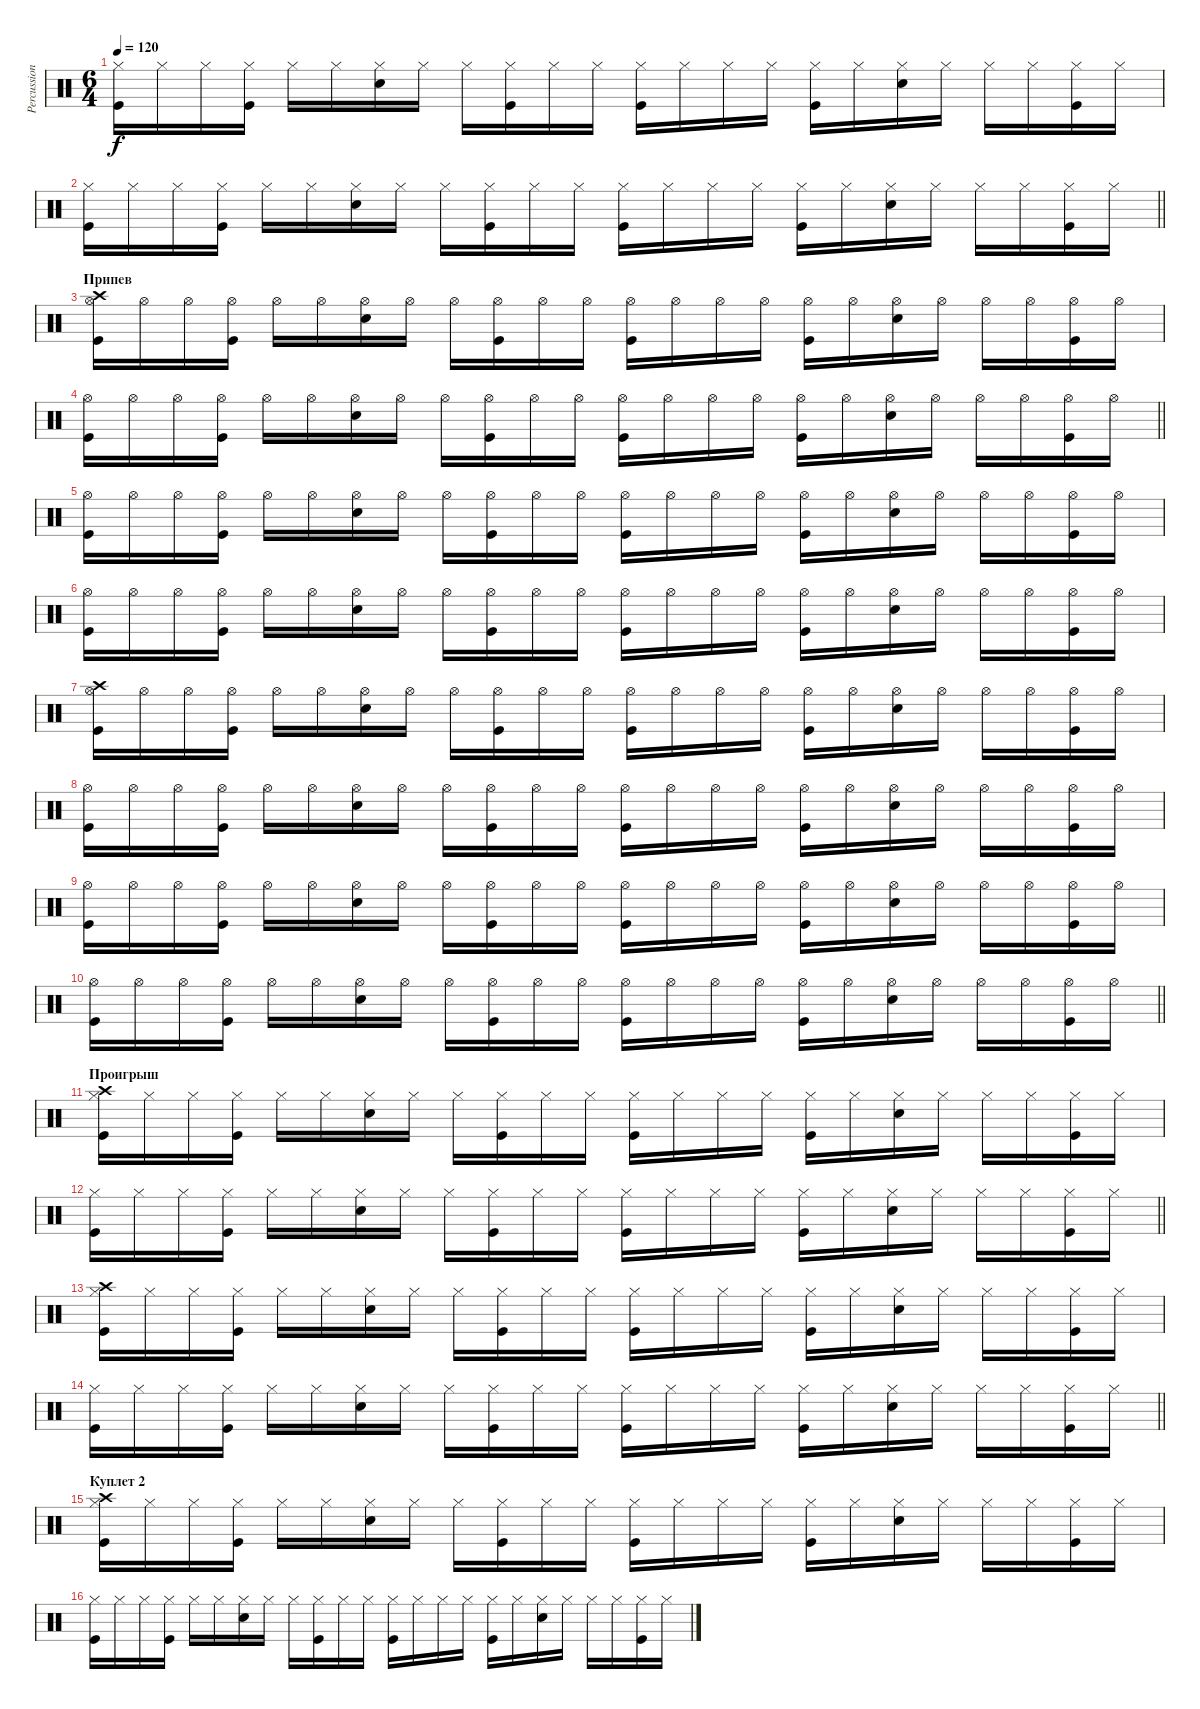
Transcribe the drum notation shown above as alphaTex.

\track ("Percussion" "Percussion") {instrument percussion}
\staff {score}
\articulation defaults
\ts (6 4)
\tempo 120
\clef neutral
\ks c
("Hi-Hat (closed)" "Kick (hit)").16{dy f} "Hi-Hat (closed)".16 "Hi-Hat (closed)".16 ("Hi-Hat (closed)" "Kick (hit)").16 "Hi-Hat (closed)".16 "Hi-Hat (closed)".16 ("Hi-Hat (closed)" "Snare (hit) 2").16 "Hi-Hat (closed)".16 "Hi-Hat (closed)".16 ("Hi-Hat (closed)" "Kick (hit)").16 "Hi-Hat (closed)".16 "Hi-Hat (closed)".16 ("Hi-Hat (closed)" "Kick (hit)").16 "Hi-Hat (closed)".16 "Hi-Hat (closed)".16 "Hi-Hat (closed)".16 ("Hi-Hat (closed)" "Kick (hit)").16 "Hi-Hat (closed)".16 ("Hi-Hat (closed)" "Snare (hit) 2").16 "Hi-Hat (closed)".16 "Hi-Hat (closed)".16 "Hi-Hat (closed)".16 ("Hi-Hat (closed)" "Kick (hit)").16 "Hi-Hat (closed)".16 |
\barLineRight lightlight
("Hi-Hat (closed)" "Kick (hit)").16 "Hi-Hat (closed)".16 "Hi-Hat (closed)".16 ("Hi-Hat (closed)" "Kick (hit)").16 "Hi-Hat (closed)".16 "Hi-Hat (closed)".16 ("Hi-Hat (closed)" "Snare (hit) 2").16 "Hi-Hat (closed)".16 "Hi-Hat (closed)".16 ("Hi-Hat (closed)" "Kick (hit)").16 "Hi-Hat (closed)".16 "Hi-Hat (closed)".16 ("Hi-Hat (closed)" "Kick (hit)").16 "Hi-Hat (closed)".16 "Hi-Hat (closed)".16 "Hi-Hat (closed)".16 ("Hi-Hat (closed)" "Kick (hit)").16 "Hi-Hat (closed)".16 ("Hi-Hat (closed)" "Snare (hit) 2").16 "Hi-Hat (closed)".16 "Hi-Hat (closed)".16 "Hi-Hat (closed)".16 ("Hi-Hat (closed)" "Kick (hit)").16 "Hi-Hat (closed)".16 |
\section ("" "Припев")
("Hi-Hat (open)" "Crash high (hit)" "Kick (hit)").16 "Hi-Hat (open)".16 "Hi-Hat (open)".16 ("Hi-Hat (open)" "Kick (hit)").16 "Hi-Hat (open)".16 "Hi-Hat (open)".16 ("Hi-Hat (open)" "Snare (hit) 2").16 "Hi-Hat (open)".16 "Hi-Hat (open)".16 ("Hi-Hat (open)" "Kick (hit)").16 "Hi-Hat (open)".16 "Hi-Hat (open)".16 ("Hi-Hat (open)" "Kick (hit)").16 "Hi-Hat (open)".16 "Hi-Hat (open)".16 "Hi-Hat (open)".16 ("Hi-Hat (open)" "Kick (hit)").16 "Hi-Hat (open)".16 ("Hi-Hat (open)" "Snare (hit) 2").16 "Hi-Hat (open)".16 "Hi-Hat (open)".16 "Hi-Hat (open)".16 ("Hi-Hat (open)" "Kick (hit)").16 "Hi-Hat (open)".16 |
\barLineRight lightlight
("Hi-Hat (open)" "Kick (hit)").16 "Hi-Hat (open)".16 "Hi-Hat (open)".16 ("Hi-Hat (open)" "Kick (hit)").16 "Hi-Hat (open)".16 "Hi-Hat (open)".16 ("Hi-Hat (open)" "Snare (hit) 2").16 "Hi-Hat (open)".16 "Hi-Hat (open)".16 ("Hi-Hat (open)" "Kick (hit)").16 "Hi-Hat (open)".16 "Hi-Hat (open)".16 ("Hi-Hat (open)" "Kick (hit)").16 "Hi-Hat (open)".16 "Hi-Hat (open)".16 "Hi-Hat (open)".16 ("Hi-Hat (open)" "Kick (hit)").16 "Hi-Hat (open)".16 ("Hi-Hat (open)" "Snare (hit) 2").16 "Hi-Hat (open)".16 "Hi-Hat (open)".16 "Hi-Hat (open)".16 ("Hi-Hat (open)" "Kick (hit)").16 "Hi-Hat (open)".16 |
("Hi-Hat (open)" "Kick (hit)").16 "Hi-Hat (open)".16 "Hi-Hat (open)".16 ("Hi-Hat (open)" "Kick (hit)").16 "Hi-Hat (open)".16 "Hi-Hat (open)".16 ("Hi-Hat (open)" "Snare (hit) 2").16 "Hi-Hat (open)".16 "Hi-Hat (open)".16 ("Hi-Hat (open)" "Kick (hit)").16 "Hi-Hat (open)".16 "Hi-Hat (open)".16 ("Hi-Hat (open)" "Kick (hit)").16 "Hi-Hat (open)".16 "Hi-Hat (open)".16 "Hi-Hat (open)".16 ("Hi-Hat (open)" "Kick (hit)").16 "Hi-Hat (open)".16 ("Hi-Hat (open)" "Snare (hit) 2").16 "Hi-Hat (open)".16 "Hi-Hat (open)".16 "Hi-Hat (open)".16 ("Hi-Hat (open)" "Kick (hit)").16 "Hi-Hat (open)".16 |
("Hi-Hat (open)" "Kick (hit)").16 "Hi-Hat (open)".16 "Hi-Hat (open)".16 ("Hi-Hat (open)" "Kick (hit)").16 "Hi-Hat (open)".16 "Hi-Hat (open)".16 ("Hi-Hat (open)" "Snare (hit) 2").16 "Hi-Hat (open)".16 "Hi-Hat (open)".16 ("Hi-Hat (open)" "Kick (hit)").16 "Hi-Hat (open)".16 "Hi-Hat (open)".16 ("Hi-Hat (open)" "Kick (hit)").16 "Hi-Hat (open)".16 "Hi-Hat (open)".16 "Hi-Hat (open)".16 ("Hi-Hat (open)" "Kick (hit)").16 "Hi-Hat (open)".16 ("Hi-Hat (open)" "Snare (hit) 2").16 "Hi-Hat (open)".16 "Hi-Hat (open)".16 "Hi-Hat (open)".16 ("Hi-Hat (open)" "Kick (hit)").16 "Hi-Hat (open)".16 |
("Hi-Hat (open)" "Crash high (hit)" "Kick (hit)").16 "Hi-Hat (open)".16 "Hi-Hat (open)".16 ("Hi-Hat (open)" "Kick (hit)").16 "Hi-Hat (open)".16 "Hi-Hat (open)".16 ("Hi-Hat (open)" "Snare (hit) 2").16 "Hi-Hat (open)".16 "Hi-Hat (open)".16 ("Hi-Hat (open)" "Kick (hit)").16 "Hi-Hat (open)".16 "Hi-Hat (open)".16 ("Hi-Hat (open)" "Kick (hit)").16 "Hi-Hat (open)".16 "Hi-Hat (open)".16 "Hi-Hat (open)".16 ("Hi-Hat (open)" "Kick (hit)").16 "Hi-Hat (open)".16 ("Hi-Hat (open)" "Snare (hit) 2").16 "Hi-Hat (open)".16 "Hi-Hat (open)".16 "Hi-Hat (open)".16 ("Hi-Hat (open)" "Kick (hit)").16 "Hi-Hat (open)".16 |
("Hi-Hat (open)" "Kick (hit)").16 "Hi-Hat (open)".16 "Hi-Hat (open)".16 ("Hi-Hat (open)" "Kick (hit)").16 "Hi-Hat (open)".16 "Hi-Hat (open)".16 ("Hi-Hat (open)" "Snare (hit) 2").16 "Hi-Hat (open)".16 "Hi-Hat (open)".16 ("Hi-Hat (open)" "Kick (hit)").16 "Hi-Hat (open)".16 "Hi-Hat (open)".16 ("Hi-Hat (open)" "Kick (hit)").16 "Hi-Hat (open)".16 "Hi-Hat (open)".16 "Hi-Hat (open)".16 ("Hi-Hat (open)" "Kick (hit)").16 "Hi-Hat (open)".16 ("Hi-Hat (open)" "Snare (hit) 2").16 "Hi-Hat (open)".16 "Hi-Hat (open)".16 "Hi-Hat (open)".16 ("Hi-Hat (open)" "Kick (hit)").16 "Hi-Hat (open)".16 |
("Hi-Hat (open)" "Kick (hit)").16 "Hi-Hat (open)".16 "Hi-Hat (open)".16 ("Hi-Hat (open)" "Kick (hit)").16 "Hi-Hat (open)".16 "Hi-Hat (open)".16 ("Hi-Hat (open)" "Snare (hit) 2").16 "Hi-Hat (open)".16 "Hi-Hat (open)".16 ("Hi-Hat (open)" "Kick (hit)").16 "Hi-Hat (open)".16 "Hi-Hat (open)".16 ("Hi-Hat (open)" "Kick (hit)").16 "Hi-Hat (open)".16 "Hi-Hat (open)".16 "Hi-Hat (open)".16 ("Hi-Hat (open)" "Kick (hit)").16 "Hi-Hat (open)".16 ("Hi-Hat (open)" "Snare (hit) 2").16 "Hi-Hat (open)".16 "Hi-Hat (open)".16 "Hi-Hat (open)".16 ("Hi-Hat (open)" "Kick (hit)").16 "Hi-Hat (open)".16 |
\barLineRight lightlight
("Hi-Hat (open)" "Kick (hit)").16 "Hi-Hat (open)".16 "Hi-Hat (open)".16 ("Hi-Hat (open)" "Kick (hit)").16 "Hi-Hat (open)".16 "Hi-Hat (open)".16 ("Hi-Hat (open)" "Snare (hit) 2").16 "Hi-Hat (open)".16 "Hi-Hat (open)".16 ("Hi-Hat (open)" "Kick (hit)").16 "Hi-Hat (open)".16 "Hi-Hat (open)".16 ("Hi-Hat (open)" "Kick (hit)").16 "Hi-Hat (open)".16 "Hi-Hat (open)".16 "Hi-Hat (open)".16 ("Hi-Hat (open)" "Kick (hit)").16 "Hi-Hat (open)".16 ("Hi-Hat (open)" "Snare (hit) 2").16 "Hi-Hat (open)".16 "Hi-Hat (open)".16 "Hi-Hat (open)".16 ("Hi-Hat (open)" "Kick (hit)").16 "Hi-Hat (open)".16 |
\section ("" "Проигрыш")
("Hi-Hat (closed)" "Crash high (hit)" "Kick (hit)").16 "Hi-Hat (closed)".16 "Hi-Hat (closed)".16 ("Hi-Hat (closed)" "Kick (hit)").16 "Hi-Hat (closed)".16 "Hi-Hat (closed)".16 ("Hi-Hat (closed)" "Snare (hit) 2").16 "Hi-Hat (closed)".16 "Hi-Hat (closed)".16 ("Hi-Hat (closed)" "Kick (hit)").16 "Hi-Hat (closed)".16 "Hi-Hat (closed)".16 ("Hi-Hat (closed)" "Kick (hit)").16 "Hi-Hat (closed)".16 "Hi-Hat (closed)".16 "Hi-Hat (closed)".16 ("Hi-Hat (closed)" "Kick (hit)").16 "Hi-Hat (closed)".16 ("Hi-Hat (closed)" "Snare (hit) 2").16 "Hi-Hat (closed)".16 "Hi-Hat (closed)".16 "Hi-Hat (closed)".16 ("Hi-Hat (closed)" "Kick (hit)").16 "Hi-Hat (closed)".16 |
\barLineRight lightlight
("Hi-Hat (closed)" "Kick (hit)").16 "Hi-Hat (closed)".16 "Hi-Hat (closed)".16 ("Hi-Hat (closed)" "Kick (hit)").16 "Hi-Hat (closed)".16 "Hi-Hat (closed)".16 ("Hi-Hat (closed)" "Snare (hit) 2").16 "Hi-Hat (closed)".16 "Hi-Hat (closed)".16 ("Hi-Hat (closed)" "Kick (hit)").16 "Hi-Hat (closed)".16 "Hi-Hat (closed)".16 ("Hi-Hat (closed)" "Kick (hit)").16 "Hi-Hat (closed)".16 "Hi-Hat (closed)".16 "Hi-Hat (closed)".16 ("Hi-Hat (closed)" "Kick (hit)").16 "Hi-Hat (closed)".16 ("Hi-Hat (closed)" "Snare (hit) 2").16 "Hi-Hat (closed)".16 "Hi-Hat (closed)".16 "Hi-Hat (closed)".16 ("Hi-Hat (closed)" "Kick (hit)").16 "Hi-Hat (closed)".16 |
("Hi-Hat (closed)" "Crash high (hit)" "Kick (hit)").16 "Hi-Hat (closed)".16 "Hi-Hat (closed)".16 ("Hi-Hat (closed)" "Kick (hit)").16 "Hi-Hat (closed)".16 "Hi-Hat (closed)".16 ("Hi-Hat (closed)" "Snare (hit) 2").16 "Hi-Hat (closed)".16 "Hi-Hat (closed)".16 ("Hi-Hat (closed)" "Kick (hit)").16 "Hi-Hat (closed)".16 "Hi-Hat (closed)".16 ("Hi-Hat (closed)" "Kick (hit)").16 "Hi-Hat (closed)".16 "Hi-Hat (closed)".16 "Hi-Hat (closed)".16 ("Hi-Hat (closed)" "Kick (hit)").16 "Hi-Hat (closed)".16 ("Hi-Hat (closed)" "Snare (hit) 2").16 "Hi-Hat (closed)".16 "Hi-Hat (closed)".16 "Hi-Hat (closed)".16 ("Hi-Hat (closed)" "Kick (hit)").16 "Hi-Hat (closed)".16 |
\barLineRight lightlight
("Hi-Hat (closed)" "Kick (hit)").16 "Hi-Hat (closed)".16 "Hi-Hat (closed)".16 ("Hi-Hat (closed)" "Kick (hit)").16 "Hi-Hat (closed)".16 "Hi-Hat (closed)".16 ("Hi-Hat (closed)" "Snare (hit) 2").16 "Hi-Hat (closed)".16 "Hi-Hat (closed)".16 ("Hi-Hat (closed)" "Kick (hit)").16 "Hi-Hat (closed)".16 "Hi-Hat (closed)".16 ("Hi-Hat (closed)" "Kick (hit)").16 "Hi-Hat (closed)".16 "Hi-Hat (closed)".16 "Hi-Hat (closed)".16 ("Hi-Hat (closed)" "Kick (hit)").16 "Hi-Hat (closed)".16 ("Hi-Hat (closed)" "Snare (hit) 2").16 "Hi-Hat (closed)".16 "Hi-Hat (closed)".16 "Hi-Hat (closed)".16 ("Hi-Hat (closed)" "Kick (hit)").16 "Hi-Hat (closed)".16 |
\section ("" "Куплет 2")
("Hi-Hat (closed)" "Crash high (hit)" "Kick (hit)").16 "Hi-Hat (closed)".16 "Hi-Hat (closed)".16 ("Hi-Hat (closed)" "Kick (hit)").16 "Hi-Hat (closed)".16 "Hi-Hat (closed)".16 ("Hi-Hat (closed)" "Snare (hit) 2").16 "Hi-Hat (closed)".16 "Hi-Hat (closed)".16 ("Hi-Hat (closed)" "Kick (hit)").16 "Hi-Hat (closed)".16 "Hi-Hat (closed)".16 ("Hi-Hat (closed)" "Kick (hit)").16 "Hi-Hat (closed)".16 "Hi-Hat (closed)".16 "Hi-Hat (closed)".16 ("Hi-Hat (closed)" "Kick (hit)").16 "Hi-Hat (closed)".16 ("Hi-Hat (closed)" "Snare (hit) 2").16 "Hi-Hat (closed)".16 "Hi-Hat (closed)".16 "Hi-Hat (closed)".16 ("Hi-Hat (closed)" "Kick (hit)").16 "Hi-Hat (closed)".16 |
("Hi-Hat (closed)" "Kick (hit)").16 "Hi-Hat (closed)".16 "Hi-Hat (closed)".16 ("Hi-Hat (closed)" "Kick (hit)").16 "Hi-Hat (closed)".16 "Hi-Hat (closed)".16 ("Hi-Hat (closed)" "Snare (hit) 2").16 "Hi-Hat (closed)".16 "Hi-Hat (closed)".16 ("Hi-Hat (closed)" "Kick (hit)").16 "Hi-Hat (closed)".16 "Hi-Hat (closed)".16 ("Hi-Hat (closed)" "Kick (hit)").16 "Hi-Hat (closed)".16 "Hi-Hat (closed)".16 "Hi-Hat (closed)".16 ("Hi-Hat (closed)" "Kick (hit)").16 "Hi-Hat (closed)".16 ("Hi-Hat (closed)" "Snare (hit) 2").16 "Hi-Hat (closed)".16 "Hi-Hat (closed)".16 "Hi-Hat (closed)".16 ("Hi-Hat (closed)" "Kick (hit)").16 "Hi-Hat (closed)".16
